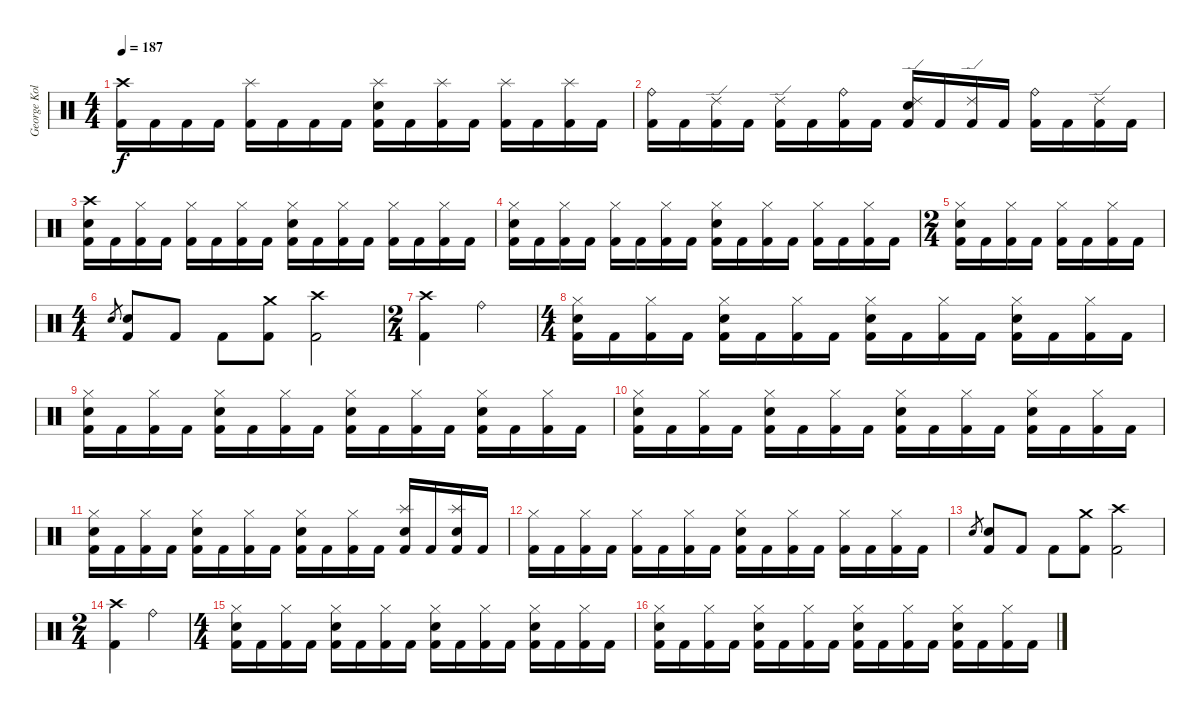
\track ("George Kollias" "George Kol") {instrument percussion}
\staff {score}
\articulation defaults
\ts (4 4)
\tempo 187
\clef neutral
\ks c
("Crash high (hit)" "Kick (hit) 2").16{dy f} "Kick (hit) 2".16 "Kick (hit) 2".16 "Kick (hit) 2".16 ("Splash (hit)" "Kick (hit) 2").16 "Kick (hit) 2".16 "Kick (hit) 2".16 "Kick (hit) 2".16 ("Splash (hit)" "Electric Snare (hit)" "Kick (hit) 2").16 "Kick (hit) 2".16 ("Splash (hit)" "Kick (hit) 2").16 "Kick (hit) 2".16 ("Splash (hit)" "Kick (hit) 2").16 "Kick (hit) 2".16 ("Splash (hit)" "Kick (hit) 2").16 "Kick (hit) 2".16 |
("Ride (bell)" "Kick (hit) 2").16 "Kick (hit) 2".16 ("Ride (edge) 2" "Kick (hit) 2").16 "Kick (hit) 2".16 ("Ride (edge) 2" "Kick (hit) 2").16 "Kick (hit) 2".16 ("Ride (bell)" "Kick (hit) 2").16 "Kick (hit) 2".16 ("Ride (edge) 2" "Electric Snare (hit)" "Kick (hit) 2").16 "Kick (hit) 2".16 ("Ride (edge) 2" "Kick (hit) 2").16 "Kick (hit) 2".16 ("Ride (bell)" "Kick (hit) 2").16 "Kick (hit) 2".16 ("Ride (edge) 2" "Kick (hit) 2").16 "Kick (hit) 2".16 |
("Crash high (hit)" "Electric Snare (hit)" "Kick (hit) 2").16 "Kick (hit) 2".16 ("Hi-Hat (closed)" "Kick (hit) 2").16 "Kick (hit) 2".16 ("Hi-Hat (closed)" "Kick (hit) 2").16 "Kick (hit) 2".16 ("Hi-Hat (closed)" "Kick (hit) 2").16 "Kick (hit) 2".16 ("Hi-Hat (closed)" "Electric Snare (hit)" "Kick (hit) 2").16 "Kick (hit) 2".16 ("Hi-Hat (closed)" "Kick (hit) 2").16 "Kick (hit) 2".16 ("Hi-Hat (closed)" "Kick (hit) 2").16 "Kick (hit) 2".16 ("Hi-Hat (closed)" "Kick (hit) 2").16 "Kick (hit) 2".16 |
("Hi-Hat (closed)" "Electric Snare (hit)" "Kick (hit) 2").16 "Kick (hit) 2".16 ("Hi-Hat (closed)" "Kick (hit) 2").16 "Kick (hit) 2".16 ("Hi-Hat (closed)" "Kick (hit) 2").16 "Kick (hit) 2".16 ("Hi-Hat (closed)" "Kick (hit) 2").16 "Kick (hit) 2".16 ("Hi-Hat (closed)" "Electric Snare (hit)" "Kick (hit) 2").16 "Kick (hit) 2".16 ("Hi-Hat (closed)" "Kick (hit) 2").16 "Kick (hit) 2".16 ("Hi-Hat (closed)" "Kick (hit) 2").16 "Kick (hit) 2".16 ("Hi-Hat (closed)" "Kick (hit) 2").16 "Kick (hit) 2".16 |
\ts (2 4)
("Hi-Hat (closed)" "Electric Snare (hit)" "Kick (hit) 2").16 "Kick (hit) 2".16 ("Hi-Hat (closed)" "Kick (hit) 2").16 "Kick (hit) 2".16 ("Hi-Hat (closed)" "Kick (hit) 2").16 "Kick (hit) 2".16 ("Hi-Hat (closed)" "Kick (hit) 2").16 "Kick (hit) 2".16 |
\ts (4 4)
"Electric Snare (hit)".8{gr} ("Electric Snare (hit)" "Kick (hit) 2").8 "Kick (hit) 2".8 "Kick (hit) 2".8 ("Crash medium (hit)" "Kick (hit) 2").8 ("Crash high (hit)" "Kick (hit) 2").2 |
\ts (2 4)
("Crash high (hit)" "Kick (hit) 2").4 "Ride (bell)".4 |
\ts (4 4)
("Hi-Hat (closed)" "Electric Snare (hit)" "Kick (hit) 2").16 "Kick (hit) 2".16 ("Hi-Hat (closed)" "Kick (hit) 2").16 "Kick (hit) 2".16 ("Hi-Hat (closed)" "Electric Snare (hit)" "Kick (hit) 2").16 "Kick (hit) 2".16 ("Hi-Hat (closed)" "Kick (hit) 2").16 "Kick (hit) 2".16 ("Hi-Hat (closed)" "Electric Snare (hit)" "Kick (hit) 2").16 "Kick (hit) 2".16 ("Hi-Hat (closed)" "Kick (hit) 2").16 "Kick (hit) 2".16 ("Hi-Hat (closed)" "Electric Snare (hit)" "Kick (hit) 2").16 "Kick (hit) 2".16 ("Hi-Hat (closed)" "Kick (hit) 2").16 "Kick (hit) 2".16 |
("Hi-Hat (closed)" "Electric Snare (hit)" "Kick (hit) 2").16 "Kick (hit) 2".16 ("Hi-Hat (closed)" "Kick (hit) 2").16 "Kick (hit) 2".16 ("Hi-Hat (closed)" "Electric Snare (hit)" "Kick (hit) 2").16 "Kick (hit) 2".16 ("Hi-Hat (closed)" "Kick (hit) 2").16 "Kick (hit) 2".16 ("Hi-Hat (closed)" "Electric Snare (hit)" "Kick (hit) 2").16 "Kick (hit) 2".16 ("Hi-Hat (closed)" "Kick (hit) 2").16 "Kick (hit) 2".16 ("Hi-Hat (closed)" "Electric Snare (hit)" "Kick (hit) 2").16 "Kick (hit) 2".16 ("Hi-Hat (closed)" "Kick (hit) 2").16 "Kick (hit) 2".16 |
("Hi-Hat (closed)" "Electric Snare (hit)" "Kick (hit) 2").16 "Kick (hit) 2".16 ("Hi-Hat (closed)" "Kick (hit) 2").16 "Kick (hit) 2".16 ("Hi-Hat (closed)" "Electric Snare (hit)" "Kick (hit) 2").16 "Kick (hit) 2".16 ("Hi-Hat (closed)" "Kick (hit) 2").16 "Kick (hit) 2".16 ("Hi-Hat (closed)" "Electric Snare (hit)" "Kick (hit) 2").16 "Kick (hit) 2".16 ("Hi-Hat (closed)" "Kick (hit) 2").16 "Kick (hit) 2".16 ("Hi-Hat (closed)" "Electric Snare (hit)" "Kick (hit) 2").16 "Kick (hit) 2".16 ("Hi-Hat (closed)" "Kick (hit) 2").16 "Kick (hit) 2".16 |
("Hi-Hat (closed)" "Electric Snare (hit)" "Kick (hit) 2").16 "Kick (hit) 2".16 ("Hi-Hat (closed)" "Kick (hit) 2").16 "Kick (hit) 2".16 ("Hi-Hat (closed)" "Electric Snare (hit)" "Kick (hit) 2").16 "Kick (hit) 2".16 ("Hi-Hat (closed)" "Kick (hit) 2").16 "Kick (hit) 2".16 ("Hi-Hat (closed)" "Electric Snare (hit)" "Kick (hit) 2").16 "Kick (hit) 2".16 ("Hi-Hat (closed)" "Kick (hit) 2").16 "Kick (hit) 2".16 ("Splash (hit)" "Electric Snare (hit)" "Kick (hit) 2").16 "Kick (hit) 2".16 ("Splash (hit)" "Electric Snare (hit)" "Kick (hit) 2").16 "Kick (hit) 2".16 |
("Hi-Hat (closed)" "Kick (hit) 2").16 "Kick (hit) 2".16 ("Hi-Hat (closed)" "Kick (hit) 2").16 "Kick (hit) 2".16 ("Hi-Hat (closed)" "Kick (hit) 2").16 "Kick (hit) 2".16 ("Hi-Hat (closed)" "Kick (hit) 2").16 "Kick (hit) 2".16 ("Hi-Hat (closed)" "Electric Snare (hit)" "Kick (hit) 2").16 "Kick (hit) 2".16 ("Hi-Hat (closed)" "Kick (hit) 2").16 "Kick (hit) 2".16 ("Hi-Hat (closed)" "Kick (hit) 2").16 "Kick (hit) 2".16 ("Hi-Hat (closed)" "Kick (hit) 2").16 "Kick (hit) 2".16 |
"Electric Snare (hit)".8{gr} ("Electric Snare (hit)" "Kick (hit) 2").8 "Kick (hit) 2".8 "Kick (hit) 2".8 ("Crash medium (hit)" "Kick (hit) 2").8 ("Crash high (hit)" "Kick (hit) 2").2 |
\ts (2 4)
("Crash high (hit)" "Kick (hit) 2").4 "Ride (bell)".4 |
\ts (4 4)
("Hi-Hat (closed)" "Electric Snare (hit)" "Kick (hit) 2").16 "Kick (hit) 2".16 ("Hi-Hat (closed)" "Kick (hit) 2").16 "Kick (hit) 2".16 ("Hi-Hat (closed)" "Electric Snare (hit)" "Kick (hit) 2").16 "Kick (hit) 2".16 ("Hi-Hat (closed)" "Kick (hit) 2").16 "Kick (hit) 2".16 ("Hi-Hat (closed)" "Electric Snare (hit)" "Kick (hit) 2").16 "Kick (hit) 2".16 ("Hi-Hat (closed)" "Kick (hit) 2").16 "Kick (hit) 2".16 ("Hi-Hat (closed)" "Electric Snare (hit)" "Kick (hit) 2").16 "Kick (hit) 2".16 ("Hi-Hat (closed)" "Kick (hit) 2").16 "Kick (hit) 2".16 |
("Hi-Hat (closed)" "Electric Snare (hit)" "Kick (hit) 2").16 "Kick (hit) 2".16 ("Hi-Hat (closed)" "Kick (hit) 2").16 "Kick (hit) 2".16 ("Hi-Hat (closed)" "Electric Snare (hit)" "Kick (hit) 2").16 "Kick (hit) 2".16 ("Hi-Hat (closed)" "Kick (hit) 2").16 "Kick (hit) 2".16 ("Hi-Hat (closed)" "Electric Snare (hit)" "Kick (hit) 2").16 "Kick (hit) 2".16 ("Hi-Hat (closed)" "Kick (hit) 2").16 "Kick (hit) 2".16 ("Hi-Hat (closed)" "Electric Snare (hit)" "Kick (hit) 2").16 "Kick (hit) 2".16 ("Hi-Hat (closed)" "Kick (hit) 2").16 "Kick (hit) 2".16
